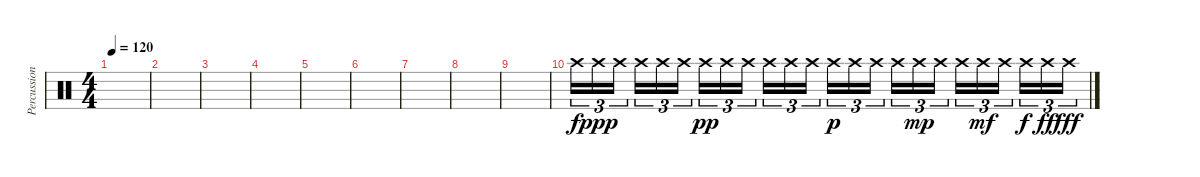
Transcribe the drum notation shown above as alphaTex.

\track ("Percussion" "Percussion") {instrument percussion}
\staff {score}
\articulation defaults
\ts (4 4)
\tempo 120
\clef neutral
\ks c
|
|
|
|
|
|
|
|
|
"Crash high (hit)".16{tu (3 2)} "Crash high (hit)".16{tu (3 2) dy ppp} "Crash high (hit)".16{tu (3 2)} "Crash high (hit)".16{tu (3 2)} "Crash high (hit)".16{tu (3 2)} "Crash high (hit)".16{tu (3 2)} "Crash high (hit)".16{tu (3 2) dy pp} "Crash high (hit)".16{tu (3 2)} "Crash high (hit)".16{tu (3 2)} "Crash high (hit)".16{tu (3 2)} "Crash high (hit)".16{tu (3 2)} "Crash high (hit)".16{tu (3 2)} "Crash high (hit)".16{tu (3 2) dy p} "Crash high (hit)".16{tu (3 2)} "Crash high (hit)".16{tu (3 2)} "Crash high (hit)".16{tu (3 2)} "Crash high (hit)".16{tu (3 2) dy mp} "Crash high (hit)".16{tu (3 2)} "Crash high (hit)".16{tu (3 2)} "Crash high (hit)".16{tu (3 2) dy mf} "Crash high (hit)".16{tu (3 2)} "Crash high (hit)".16{tu (3 2) dy f} "Crash high (hit)".16{tu (3 2) dy ff} "Crash high (hit)".16{tu (3 2) dy fff}
